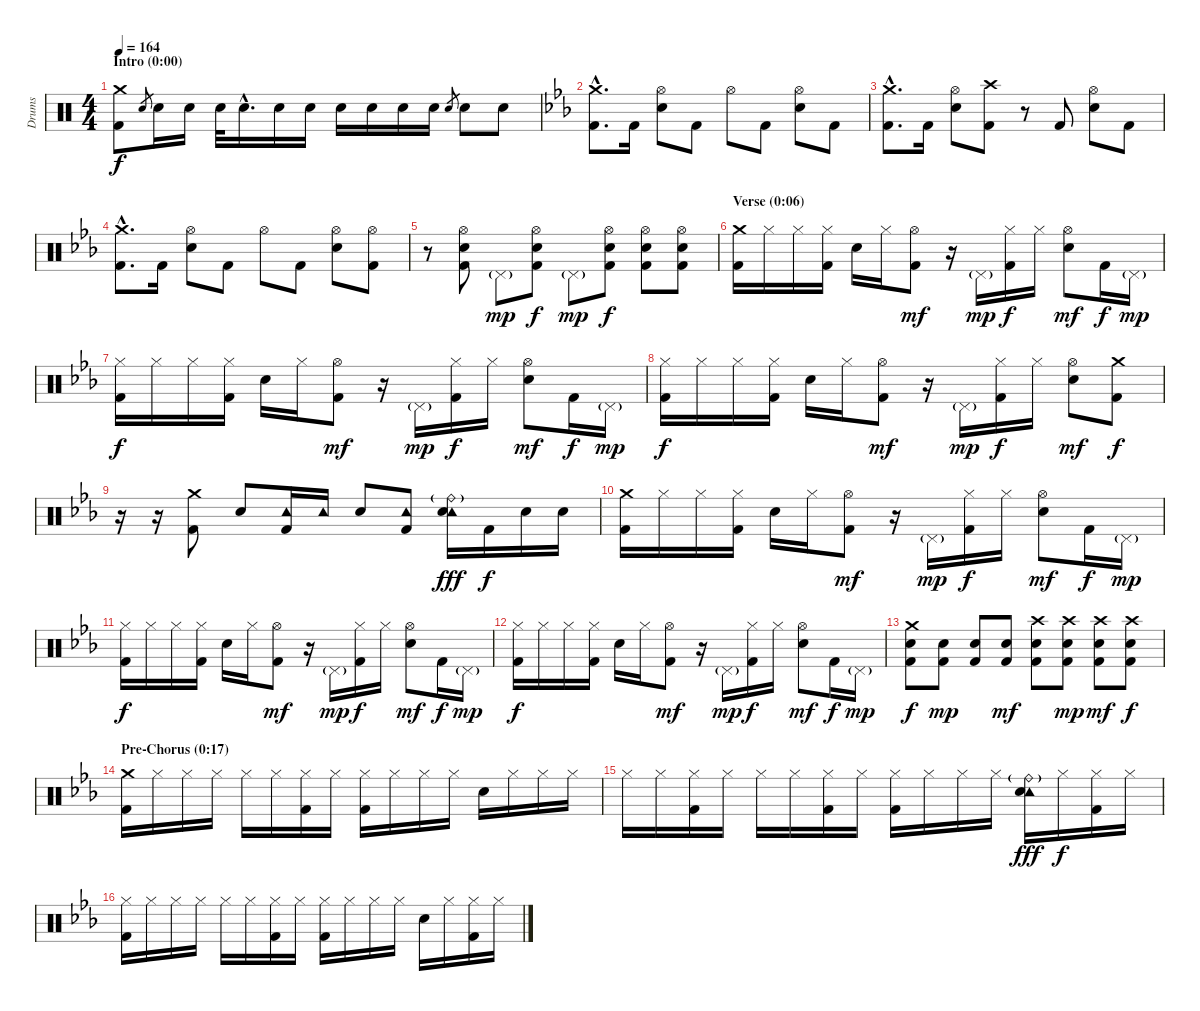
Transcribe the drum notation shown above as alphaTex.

\track ("Drums" "Drums") {instrument percussion}
\staff {score}
\articulation defaults
\ts (4 4)
\section ("" "Intro (0:00)")
\tempo 164
\clef neutral
\ks c
("Crash medium (hit)" "Kick (hit) 2").8{dy f} "Electric Snare (hit)".8{gr} "Electric Snare (hit)".16 "Electric Snare (hit)".16 "Electric Snare (hit)".32 "Electric Snare (hit)"{hac}.16{d} "Electric Snare (hit)".16 "Electric Snare (hit)".16 "Electric Snare (hit)".16 "Electric Snare (hit)".16 "Electric Snare (hit)".16 "Electric Snare (hit)".16 "Electric Snare (hit)".8{gr} "Electric Snare (hit)".8 "Electric Snare (hit)".8 |
\ks eb
("Crash medium (hit)"{hac} "Kick (hit) 2"{hac}).8{d} "Kick (hit) 2".16 ("Hi-Hat (open)" "Electric Snare (hit)").8 "Kick (hit) 2".8 "Hi-Hat (open)".8 "Kick (hit) 2".8 ("Hi-Hat (open)" "Electric Snare (hit)").8 "Kick (hit) 2".8 |
("Crash medium (hit)"{hac} "Kick (hit) 2"{hac}).8{d} "Kick (hit) 2".16 ("Hi-Hat (open)" "Electric Snare (hit)").8 ("Crash high (hit)" "Kick (hit) 2").8 r.8 "Kick (hit) 2".8 ("Hi-Hat (open)" "Electric Snare (hit)").8 "Kick (hit) 2".8 |
("Crash medium (hit)"{hac} "Kick (hit) 2"{hac}).8{d} "Kick (hit) 2".16 ("Hi-Hat (open)" "Electric Snare (hit)").8 "Kick (hit) 2".8 "Hi-Hat (open)".8 "Kick (hit) 2".8 ("Hi-Hat (open)" "Electric Snare (hit)").8 ("Hi-Hat (open)" "Kick (hit) 2").8 |
r.8 ("Hi-Hat (open)" "Electric Snare (hit)" "Kick (hit) 2").8 "Pedal Hi-Hat (hit)"{g}.8{dy mp} ("Hi-Hat (open)" "Electric Snare (hit)" "Kick (hit) 2").8{dy f} "Pedal Hi-Hat (hit)"{g}.8{dy mp} ("Hi-Hat (open)" "Electric Snare (hit)" "Kick (hit) 2").8{dy f} ("Hi-Hat (open)" "Electric Snare (hit)" "Kick (hit) 2").8 ("Hi-Hat (open)" "Electric Snare (hit)" "Kick (hit) 2").8 |
\section ("" "Verse (0:06)")
("Crash medium (hit)" "Kick (hit) 2").16 "Hi-Hat (closed)".16 "Hi-Hat (closed)".16 ("Hi-Hat (closed)" "Kick (hit) 2").16 "Electric Snare (hit)".16 "Hi-Hat (closed)".16 ("Hi-Hat (open)" "Kick (hit) 2").8{dy mf} r.16 "Pedal Hi-Hat (hit)"{g}.16{dy mp} ("Hi-Hat (closed)" "Kick (hit) 2").16{dy f} "Hi-Hat (closed)".16 ("Hi-Hat (open)" "Electric Snare (hit)").8{dy mf} "Kick (hit) 2".16{dy f} "Pedal Hi-Hat (hit)"{g}.16{dy mp} |
("Hi-Hat (closed)" "Kick (hit) 2").16{dy f} "Hi-Hat (closed)".16 "Hi-Hat (closed)".16 ("Hi-Hat (closed)" "Kick (hit) 2").16 "Electric Snare (hit)".16 "Hi-Hat (closed)".16 ("Hi-Hat (open)" "Kick (hit) 2").8{dy mf} r.16 "Pedal Hi-Hat (hit)"{g}.16{dy mp} ("Hi-Hat (closed)" "Kick (hit) 2").16{dy f} "Hi-Hat (closed)".16 ("Hi-Hat (open)" "Electric Snare (hit)").8{dy mf} "Kick (hit) 2".16{dy f} "Pedal Hi-Hat (hit)"{g}.16{dy mp} |
("Hi-Hat (closed)" "Kick (hit) 2").16{dy f} "Hi-Hat (closed)".16 "Hi-Hat (closed)".16 ("Hi-Hat (closed)" "Kick (hit) 2").16 "Electric Snare (hit)".16 "Hi-Hat (closed)".16 ("Hi-Hat (open)" "Kick (hit) 2").8{dy mf} r.16 "Pedal Hi-Hat (hit)"{g}.16{dy mp} ("Hi-Hat (closed)" "Kick (hit) 2").16{dy f} "Hi-Hat (closed)".16 ("Hi-Hat (open)" "Electric Snare (hit)").8{dy mf} ("Crash medium (hit)" "Kick (hit) 2").8{dy f} |
r.16 r.16{volume 0} ("Crash medium (hit)" "Kick (hit) 2").8{volume 16} "Electric Snare (hit)".8 ("Tambourine (hit)" "Kick (hit) 2").16 "Tambourine (hit)".16 "Electric Snare (hit)".8 ("Tambourine (hit)" "Kick (hit) 2").8 ("Ride (bell)"{g} "Tambourine (hit)" "Electric Snare (hit)").16{dy fff} "Kick (hit) 2".16{dy f} "Electric Snare (hit)".16 "Electric Snare (hit)".16 |
("Crash medium (hit)" "Kick (hit) 2").16 "Hi-Hat (closed)".16 "Hi-Hat (closed)".16 ("Hi-Hat (closed)" "Kick (hit) 2").16 "Electric Snare (hit)".16 "Hi-Hat (closed)".16 ("Hi-Hat (open)" "Kick (hit) 2").8{dy mf} r.16 "Pedal Hi-Hat (hit)"{g}.16{dy mp} ("Hi-Hat (closed)" "Kick (hit) 2").16{dy f} "Hi-Hat (closed)".16 ("Hi-Hat (open)" "Electric Snare (hit)").8{dy mf} "Kick (hit) 2".16{dy f} "Pedal Hi-Hat (hit)"{g}.16{dy mp} |
("Hi-Hat (closed)" "Kick (hit) 2").16{dy f} "Hi-Hat (closed)".16 "Hi-Hat (closed)".16 ("Hi-Hat (closed)" "Kick (hit) 2").16 "Electric Snare (hit)".16 "Hi-Hat (closed)".16 ("Hi-Hat (open)" "Kick (hit) 2").8{dy mf} r.16 "Pedal Hi-Hat (hit)"{g}.16{dy mp} ("Hi-Hat (closed)" "Kick (hit) 2").16{dy f} "Hi-Hat (closed)".16 ("Hi-Hat (open)" "Electric Snare (hit)").8{dy mf} "Kick (hit) 2".16{dy f} "Pedal Hi-Hat (hit)"{g}.16{dy mp} |
("Hi-Hat (closed)" "Kick (hit) 2").16{dy f} "Hi-Hat (closed)".16 "Hi-Hat (closed)".16 ("Hi-Hat (closed)" "Kick (hit) 2").16 "Electric Snare (hit)".16 "Hi-Hat (closed)".16 ("Hi-Hat (open)" "Kick (hit) 2").8{dy mf} r.16 "Pedal Hi-Hat (hit)"{g}.16{dy mp} ("Hi-Hat (closed)" "Kick (hit) 2").16{dy f} "Hi-Hat (closed)".16 ("Hi-Hat (open)" "Electric Snare (hit)").8{dy mf} "Kick (hit) 2".16{dy f} "Pedal Hi-Hat (hit)"{g}.16{dy mp} |
("Crash medium (hit)" "Electric Snare (hit)" "Kick (hit) 2").8{dy f} ("Electric Snare (hit)" "Kick (hit) 2").8{dy mp} ("Electric Snare (hit)" "Kick (hit) 2").8 ("Electric Snare (hit)" "Kick (hit) 2").8{dy mf} ("Crash high (hit)" "Electric Snare (hit)" "Kick (hit) 2").8 ("Crash high (hit)" "Electric Snare (hit)" "Kick (hit) 2").8{dy mp} ("Crash high (hit)" "Electric Snare (hit)" "Kick (hit) 2").8{dy mf} ("Crash high (hit)" "Electric Snare (hit)" "Kick (hit) 2").8{dy f} |
\section ("" "Pre-Chorus (0:17)")
("Crash medium (hit)" "Kick (hit) 2").16 "Hi-Hat (closed)".16 "Hi-Hat (closed)".16 "Hi-Hat (closed)".16 "Hi-Hat (closed)".16 "Hi-Hat (closed)".16 ("Hi-Hat (closed)" "Kick (hit) 2").16 "Hi-Hat (closed)".16 ("Hi-Hat (closed)" "Kick (hit) 2").16 "Hi-Hat (closed)".16 "Hi-Hat (closed)".16 "Hi-Hat (closed)".16 "Electric Snare (hit)".16 "Hi-Hat (closed)".16 "Hi-Hat (closed)".16 "Hi-Hat (closed)".16 |
"Hi-Hat (closed)".16 "Hi-Hat (closed)".16 ("Hi-Hat (closed)" "Kick (hit) 2").16 "Hi-Hat (closed)".16 "Hi-Hat (closed)".16 "Hi-Hat (closed)".16 ("Hi-Hat (closed)" "Kick (hit) 2").16 "Hi-Hat (closed)".16 ("Hi-Hat (closed)" "Kick (hit) 2").16 "Hi-Hat (closed)".16 "Hi-Hat (closed)".16 "Hi-Hat (closed)".16 ("Ride (bell)"{g} "Tambourine (hit)" "Electric Snare (hit)").16{dy fff} "Hi-Hat (closed)".16{dy f} ("Hi-Hat (closed)" "Kick (hit) 2").16 "Hi-Hat (closed)".16 |
("Hi-Hat (closed)" "Kick (hit) 2").16 "Hi-Hat (closed)".16 "Hi-Hat (closed)".16 "Hi-Hat (closed)".16 "Hi-Hat (closed)".16 "Hi-Hat (closed)".16 ("Hi-Hat (closed)" "Kick (hit) 2").16 "Hi-Hat (closed)".16 ("Hi-Hat (closed)" "Kick (hit) 2").16 "Hi-Hat (closed)".16 "Hi-Hat (closed)".16 "Hi-Hat (closed)".16 "Electric Snare (hit)".16 "Hi-Hat (closed)".16 ("Hi-Hat (closed)" "Kick (hit) 2").16 "Hi-Hat (closed)".16
